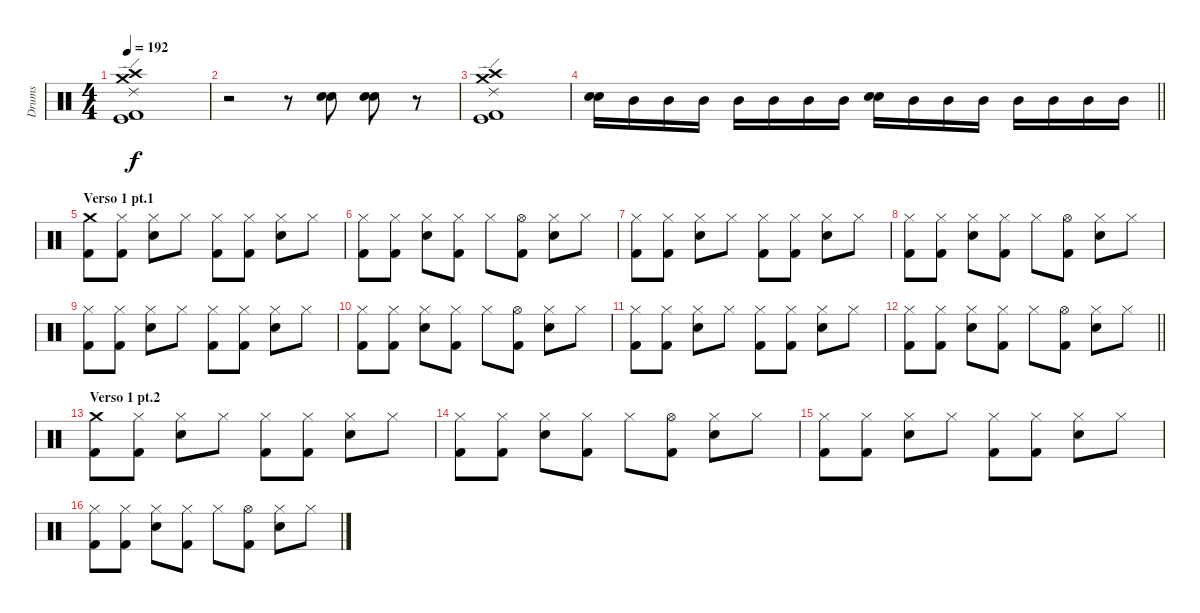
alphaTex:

\track ("Drums" "Drums") {instrument percussion}
\staff {score}
\articulation defaults
\ts (4 4)
\tempo 192
\clef neutral
\ks c
("Crash medium (hit)" "Ride (edge) 2" "Crash high (hit)" "Kick (hit)" "Kick (hit) 2").1{dy f} |
r.2 r.8 ("Electric Snare (hit)" "Snare (hit) 2").8 ("Electric Snare (hit)" "Snare (hit) 2").8 r.8 |
("Crash medium (hit)" "Ride (edge) 2" "Crash high (hit)" "Kick (hit)" "Kick (hit) 2").1 |
\barLineRight lightlight
("Electric Snare (hit)" "Snare (hit) 2").16 "Mid Tom (hit)".16 "Mid Tom (hit)".16 "Mid Tom (hit)".16 "Mid Tom (hit)".16 "Mid Tom (hit)".16 "Mid Tom (hit)".16 "Mid Tom (hit)".16 ("Electric Snare (hit)" "Snare (hit) 2").16 "Mid Tom (hit)".16 "Mid Tom (hit)".16 "Mid Tom (hit)".16 "Mid Tom (hit)".16 "Mid Tom (hit)".16 "Mid Tom (hit)".16 "Mid Tom (hit)".16 |
\section ("" "Verso 1 pt.1")
("Crash medium (hit)" "Kick (hit) 2").8 ("Hi-Hat (closed)" "Kick (hit) 2").8 ("Hi-Hat (closed)" "Snare (hit) 2").8 "Hi-Hat (closed)".8 ("Hi-Hat (closed)" "Kick (hit) 2").8 ("Hi-Hat (closed)" "Kick (hit) 2").8 ("Hi-Hat (closed)" "Snare (hit) 2").8 "Hi-Hat (closed)".8 |
("Hi-Hat (closed)" "Kick (hit) 2").8 ("Hi-Hat (closed)" "Kick (hit) 2").8 ("Hi-Hat (closed)" "Snare (hit) 2").8 ("Hi-Hat (closed)" "Kick (hit) 2").8 "Hi-Hat (closed)".8 ("Hi-Hat (open)" "Kick (hit) 2").8 ("Hi-Hat (closed)" "Snare (hit) 2").8 "Hi-Hat (closed)".8 |
("Hi-Hat (closed)" "Kick (hit) 2").8 ("Hi-Hat (closed)" "Kick (hit) 2").8 ("Hi-Hat (closed)" "Snare (hit) 2").8 "Hi-Hat (closed)".8 ("Hi-Hat (closed)" "Kick (hit) 2").8 ("Hi-Hat (closed)" "Kick (hit) 2").8 ("Hi-Hat (closed)" "Snare (hit) 2").8 "Hi-Hat (closed)".8 |
("Hi-Hat (closed)" "Kick (hit) 2").8 ("Hi-Hat (closed)" "Kick (hit) 2").8 ("Hi-Hat (closed)" "Snare (hit) 2").8 ("Hi-Hat (closed)" "Kick (hit) 2").8 "Hi-Hat (closed)".8 ("Hi-Hat (open)" "Kick (hit) 2").8 ("Hi-Hat (closed)" "Snare (hit) 2").8 "Hi-Hat (closed)".8 |
("Hi-Hat (closed)" "Kick (hit) 2").8 ("Hi-Hat (closed)" "Kick (hit) 2").8 ("Hi-Hat (closed)" "Snare (hit) 2").8 "Hi-Hat (closed)".8 ("Hi-Hat (closed)" "Kick (hit) 2").8 ("Hi-Hat (closed)" "Kick (hit) 2").8 ("Hi-Hat (closed)" "Snare (hit) 2").8 "Hi-Hat (closed)".8 |
("Hi-Hat (closed)" "Kick (hit) 2").8 ("Hi-Hat (closed)" "Kick (hit) 2").8 ("Hi-Hat (closed)" "Snare (hit) 2").8 ("Hi-Hat (closed)" "Kick (hit) 2").8 "Hi-Hat (closed)".8 ("Hi-Hat (open)" "Kick (hit) 2").8 ("Hi-Hat (closed)" "Snare (hit) 2").8 "Hi-Hat (closed)".8 |
("Hi-Hat (closed)" "Kick (hit) 2").8 ("Hi-Hat (closed)" "Kick (hit) 2").8 ("Hi-Hat (closed)" "Snare (hit) 2").8 "Hi-Hat (closed)".8 ("Hi-Hat (closed)" "Kick (hit) 2").8 ("Hi-Hat (closed)" "Kick (hit) 2").8 ("Hi-Hat (closed)" "Snare (hit) 2").8 "Hi-Hat (closed)".8 |
\barLineRight lightlight
("Hi-Hat (closed)" "Kick (hit) 2").8 ("Hi-Hat (closed)" "Kick (hit) 2").8 ("Hi-Hat (closed)" "Snare (hit) 2").8 ("Hi-Hat (closed)" "Kick (hit) 2").8 "Hi-Hat (closed)".8 ("Hi-Hat (open)" "Kick (hit) 2").8 ("Hi-Hat (closed)" "Snare (hit) 2").8 "Hi-Hat (closed)".8 |
\section ("" "Verso 1 pt.2")
("Crash medium (hit)" "Kick (hit) 2").8 ("Hi-Hat (closed)" "Kick (hit) 2").8 ("Hi-Hat (closed)" "Snare (hit) 2").8 "Hi-Hat (closed)".8 ("Hi-Hat (closed)" "Kick (hit) 2").8 ("Hi-Hat (closed)" "Kick (hit) 2").8 ("Hi-Hat (closed)" "Snare (hit) 2").8 "Hi-Hat (closed)".8 |
("Hi-Hat (closed)" "Kick (hit) 2").8 ("Hi-Hat (closed)" "Kick (hit) 2").8 ("Hi-Hat (closed)" "Snare (hit) 2").8 ("Hi-Hat (closed)" "Kick (hit) 2").8 "Hi-Hat (closed)".8 ("Hi-Hat (open)" "Kick (hit) 2").8 ("Hi-Hat (closed)" "Snare (hit) 2").8 "Hi-Hat (closed)".8 |
("Hi-Hat (closed)" "Kick (hit) 2").8 ("Hi-Hat (closed)" "Kick (hit) 2").8 ("Hi-Hat (closed)" "Snare (hit) 2").8 "Hi-Hat (closed)".8 ("Hi-Hat (closed)" "Kick (hit) 2").8 ("Hi-Hat (closed)" "Kick (hit) 2").8 ("Hi-Hat (closed)" "Snare (hit) 2").8 "Hi-Hat (closed)".8 |
("Hi-Hat (closed)" "Kick (hit) 2").8 ("Hi-Hat (closed)" "Kick (hit) 2").8 ("Hi-Hat (closed)" "Snare (hit) 2").8 ("Hi-Hat (closed)" "Kick (hit) 2").8 "Hi-Hat (closed)".8 ("Hi-Hat (open)" "Kick (hit) 2").8 ("Hi-Hat (closed)" "Snare (hit) 2").8 "Hi-Hat (closed)".8
